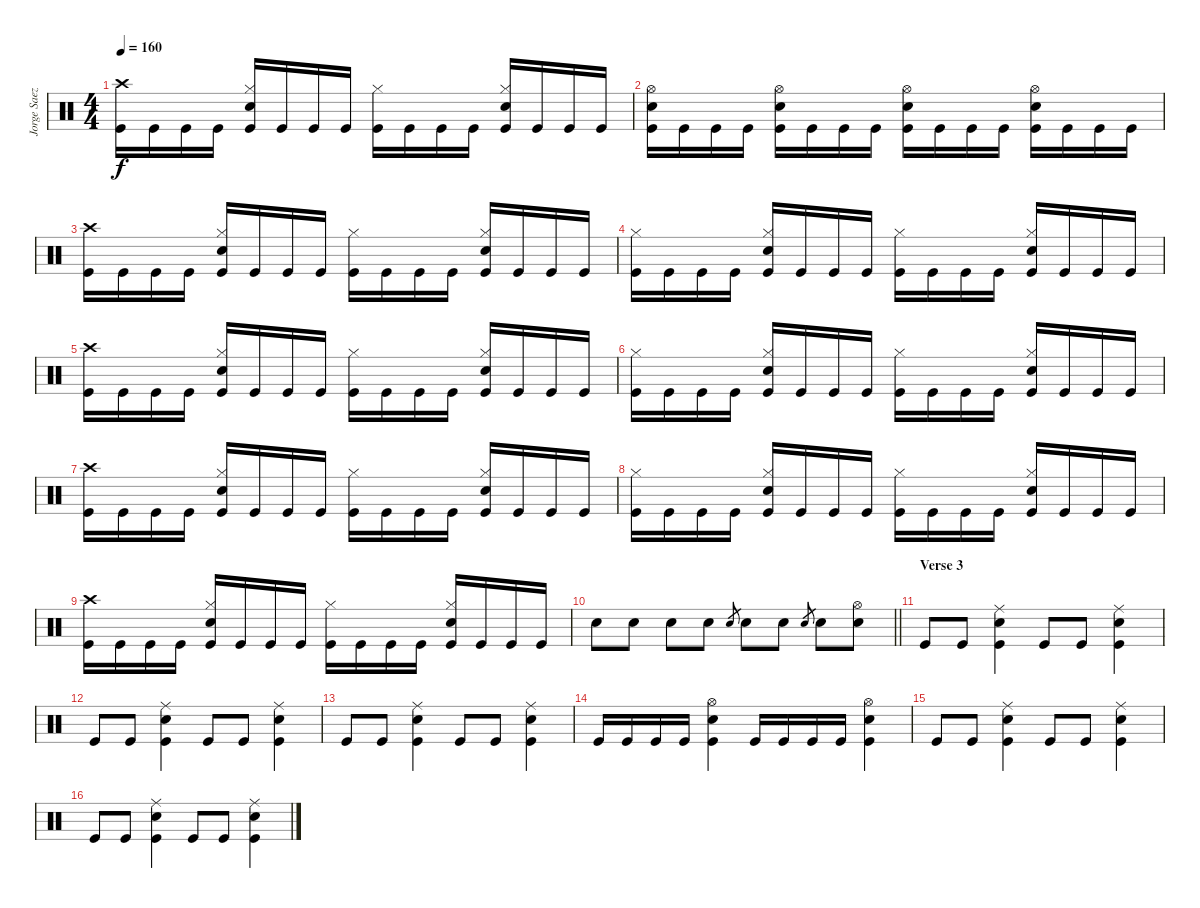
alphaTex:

\track ("Jorge Saez" "Jorge Saez") {instrument percussion}
\staff {score}
\articulation defaults
\ts (4 4)
\tempo 160
\clef neutral
\ks c
("Crash high (hit)" "Kick (hit)").16{dy f} "Kick (hit)".16 "Kick (hit)".16 "Kick (hit)".16 ("Hi-Hat (closed)" "Snare (hit) 2" "Kick (hit)").16 "Kick (hit)".16 "Kick (hit)".16 "Kick (hit)".16 ("Hi-Hat (closed)" "Kick (hit)").16 "Kick (hit)".16 "Kick (hit)".16 "Kick (hit)".16 ("Hi-Hat (closed)" "Snare (hit) 2" "Kick (hit)").16 "Kick (hit)".16 "Kick (hit)".16 "Kick (hit)".16 |
("Hi-Hat (open)" "Snare (hit) 2" "Kick (hit)").16 "Kick (hit)".16 "Kick (hit)".16 "Kick (hit)".16 ("Hi-Hat (open)" "Snare (hit) 2" "Kick (hit)").16 "Kick (hit)".16 "Kick (hit)".16 "Kick (hit)".16 ("Hi-Hat (open)" "Snare (hit) 2" "Kick (hit)").16 "Kick (hit)".16 "Kick (hit)".16 "Kick (hit)".16 ("Hi-Hat (open)" "Snare (hit) 2" "Kick (hit)").16 "Kick (hit)".16 "Kick (hit)".16 "Kick (hit)".16 |
("Crash high (hit)" "Kick (hit)").16 "Kick (hit)".16 "Kick (hit)".16 "Kick (hit)".16 ("Hi-Hat (closed)" "Snare (hit) 2" "Kick (hit)").16 "Kick (hit)".16 "Kick (hit)".16 "Kick (hit)".16 ("Hi-Hat (closed)" "Kick (hit)").16 "Kick (hit)".16 "Kick (hit)".16 "Kick (hit)".16 ("Hi-Hat (closed)" "Snare (hit) 2" "Kick (hit)").16 "Kick (hit)".16 "Kick (hit)".16 "Kick (hit)".16 |
("Hi-Hat (closed)" "Kick (hit)").16 "Kick (hit)".16 "Kick (hit)".16 "Kick (hit)".16 ("Hi-Hat (closed)" "Snare (hit) 2" "Kick (hit)").16 "Kick (hit)".16 "Kick (hit)".16 "Kick (hit)".16 ("Hi-Hat (closed)" "Kick (hit)").16 "Kick (hit)".16 "Kick (hit)".16 "Kick (hit)".16 ("Hi-Hat (closed)" "Snare (hit) 2" "Kick (hit)").16 "Kick (hit)".16 "Kick (hit)".16 "Kick (hit)".16 |
("Crash high (hit)" "Kick (hit)").16 "Kick (hit)".16 "Kick (hit)".16 "Kick (hit)".16 ("Hi-Hat (closed)" "Snare (hit) 2" "Kick (hit)").16 "Kick (hit)".16 "Kick (hit)".16 "Kick (hit)".16 ("Hi-Hat (closed)" "Kick (hit)").16 "Kick (hit)".16 "Kick (hit)".16 "Kick (hit)".16 ("Hi-Hat (closed)" "Snare (hit) 2" "Kick (hit)").16 "Kick (hit)".16 "Kick (hit)".16 "Kick (hit)".16 |
("Hi-Hat (closed)" "Kick (hit)").16 "Kick (hit)".16 "Kick (hit)".16 "Kick (hit)".16 ("Hi-Hat (closed)" "Snare (hit) 2" "Kick (hit)").16 "Kick (hit)".16 "Kick (hit)".16 "Kick (hit)".16 ("Hi-Hat (closed)" "Kick (hit)").16 "Kick (hit)".16 "Kick (hit)".16 "Kick (hit)".16 ("Hi-Hat (closed)" "Snare (hit) 2" "Kick (hit)").16 "Kick (hit)".16 "Kick (hit)".16 "Kick (hit)".16 |
("Crash high (hit)" "Kick (hit)").16 "Kick (hit)".16 "Kick (hit)".16 "Kick (hit)".16 ("Hi-Hat (closed)" "Snare (hit) 2" "Kick (hit)").16 "Kick (hit)".16 "Kick (hit)".16 "Kick (hit)".16 ("Hi-Hat (closed)" "Kick (hit)").16 "Kick (hit)".16 "Kick (hit)".16 "Kick (hit)".16 ("Hi-Hat (closed)" "Snare (hit) 2" "Kick (hit)").16 "Kick (hit)".16 "Kick (hit)".16 "Kick (hit)".16 |
("Hi-Hat (closed)" "Kick (hit)").16 "Kick (hit)".16 "Kick (hit)".16 "Kick (hit)".16 ("Hi-Hat (closed)" "Snare (hit) 2" "Kick (hit)").16 "Kick (hit)".16 "Kick (hit)".16 "Kick (hit)".16 ("Hi-Hat (closed)" "Kick (hit)").16 "Kick (hit)".16 "Kick (hit)".16 "Kick (hit)".16 ("Hi-Hat (closed)" "Snare (hit) 2" "Kick (hit)").16 "Kick (hit)".16 "Kick (hit)".16 "Kick (hit)".16 |
("Crash high (hit)" "Kick (hit)").16 "Kick (hit)".16 "Kick (hit)".16 "Kick (hit)".16 ("Hi-Hat (closed)" "Snare (hit) 2" "Kick (hit)").16 "Kick (hit)".16 "Kick (hit)".16 "Kick (hit)".16 ("Hi-Hat (closed)" "Kick (hit)").16 "Kick (hit)".16 "Kick (hit)".16 "Kick (hit)".16 ("Hi-Hat (closed)" "Snare (hit) 2" "Kick (hit)").16 "Kick (hit)".16 "Kick (hit)".16 "Kick (hit)".16 |
\barLineRight lightlight "Electric Snare (hit)".8 "Electric Snare (hit)".8 "Electric Snare (hit)".8 "Electric Snare (hit)".8 "Electric Snare (hit)".8{gr} "Electric Snare (hit)".8 "Electric Snare (hit)".8 "Electric Snare (hit)".8{gr} "Electric Snare (hit)".8
("Hi-Hat (open)" "Electric Snare (hit)").8 |
\section ("" "Verse 3")
"Kick (hit)".8 "Kick (hit)".8 ("Ride (middle)" "Snare (hit) 2" "Kick (hit)").4 "Kick (hit)".8 "Kick (hit)".8 ("Ride (middle)" "Snare (hit) 2" "Kick (hit)").4 |
"Kick (hit)".8 "Kick (hit)".8 ("Ride (middle)" "Snare (hit) 2" "Kick (hit)").4 "Kick (hit)".8 "Kick (hit)".8 ("Ride (middle)" "Snare (hit) 2" "Kick (hit)").4 |
"Kick (hit)".8 "Kick (hit)".8 ("Ride (middle)" "Snare (hit) 2" "Kick (hit)").4 "Kick (hit)".8 "Kick (hit)".8 ("Ride (middle)" "Snare (hit) 2" "Kick (hit)").4 |
"Kick (hit)".16 "Kick (hit)".16 "Kick (hit)".16 "Kick (hit)".16 ("Hi-Hat (open)" "Snare (hit) 2" "Kick (hit)").4 "Kick (hit)".16 "Kick (hit)".16 "Kick (hit)".16 "Kick (hit)".16 ("Hi-Hat (open)" "Snare (hit) 2" "Kick (hit)").4 |
"Kick (hit)".8 "Kick (hit)".8 ("Ride (middle)" "Snare (hit) 2" "Kick (hit)").4 "Kick (hit)".8 "Kick (hit)".8 ("Ride (middle)" "Snare (hit) 2" "Kick (hit)").4 |
"Kick (hit)".8 "Kick (hit)".8 ("Ride (middle)" "Snare (hit) 2" "Kick (hit)").4 "Kick (hit)".8 "Kick (hit)".8 ("Ride (middle)" "Snare (hit) 2" "Kick (hit)").4
